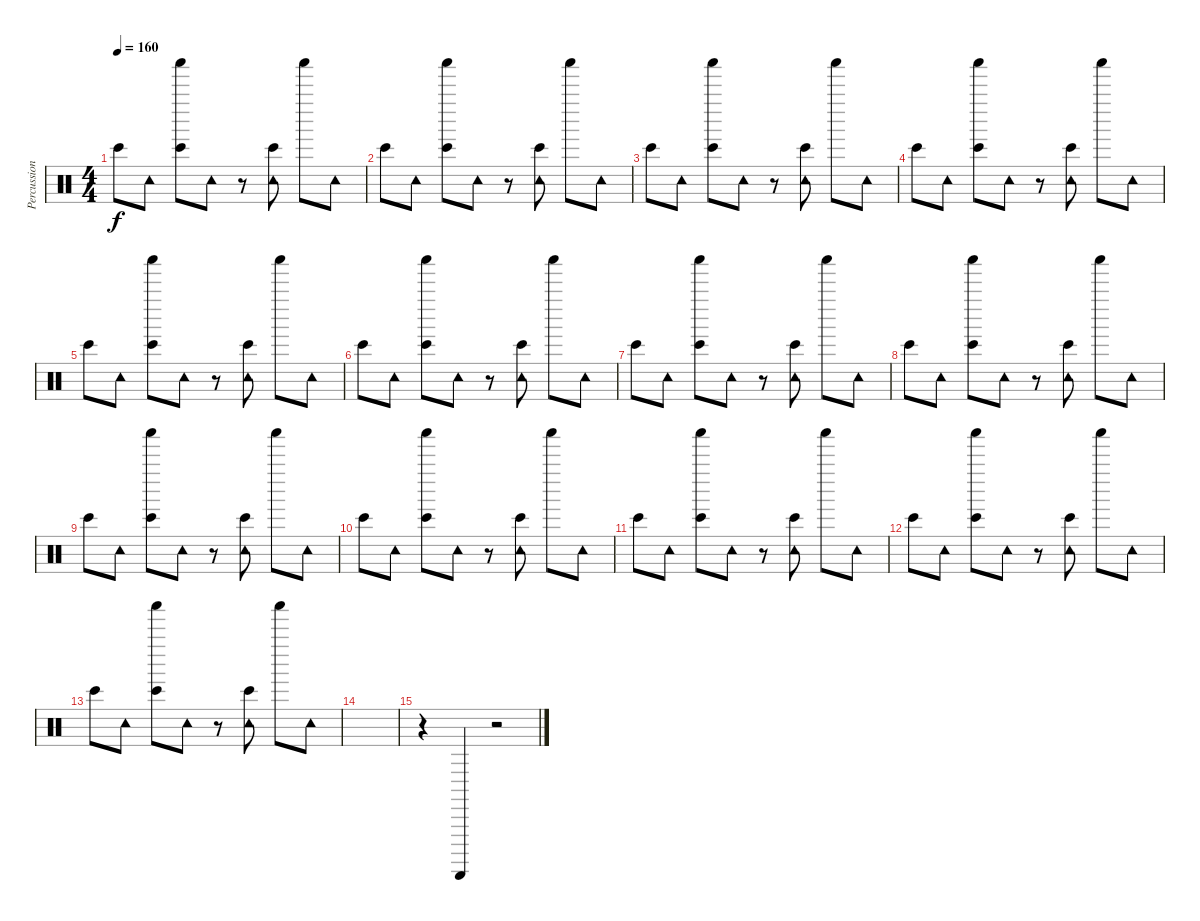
\track ("Percussions" "Percussion") {instrument percussion}
\staff {score}
\articulation defaults
\ts (4 4)
\tempo 160
\clef neutral
\ks c "Bongo High (hit)".8{dy f} "Tambourine (hit)".8
("Bongo High (hit)" "Shaker (hit)").8 "Tambourine (hit)".8 r.8 ("Bongo High (hit)" "Tambourine (hit)").8 "Shaker (hit)".8 "Tambourine (hit)".8 |
"Bongo High (hit)".8 "Tambourine (hit)".8 ("Bongo High (hit)" "Shaker (hit)").8 "Tambourine (hit)".8 r.8 ("Bongo High (hit)" "Tambourine (hit)").8 "Shaker (hit)".8 "Tambourine (hit)".8 |
"Bongo High (hit)".8 "Tambourine (hit)".8 ("Bongo High (hit)" "Shaker (hit)").8 "Tambourine (hit)".8 r.8 ("Bongo High (hit)" "Tambourine (hit)").8 "Shaker (hit)".8 "Tambourine (hit)".8 |
"Bongo High (hit)".8 "Tambourine (hit)".8 ("Bongo High (hit)" "Shaker (hit)").8 "Tambourine (hit)".8 r.8 ("Bongo High (hit)" "Tambourine (hit)").8 "Shaker (hit)".8 "Tambourine (hit)".8 |
"Bongo High (hit)".8 "Tambourine (hit)".8 ("Bongo High (hit)" "Shaker (hit)").8 "Tambourine (hit)".8 r.8 ("Bongo High (hit)" "Tambourine (hit)").8 "Shaker (hit)".8 "Tambourine (hit)".8 |
"Bongo High (hit)".8 "Tambourine (hit)".8 ("Bongo High (hit)" "Shaker (hit)").8 "Tambourine (hit)".8 r.8 ("Bongo High (hit)" "Tambourine (hit)").8 "Shaker (hit)".8 "Tambourine (hit)".8 |
"Bongo High (hit)".8 "Tambourine (hit)".8 ("Bongo High (hit)" "Shaker (hit)").8 "Tambourine (hit)".8 r.8 ("Bongo High (hit)" "Tambourine (hit)").8 "Shaker (hit)".8 "Tambourine (hit)".8 |
"Bongo High (hit)".8 "Tambourine (hit)".8 ("Bongo High (hit)" "Shaker (hit)").8 "Tambourine (hit)".8 r.8 ("Bongo High (hit)" "Tambourine (hit)").8 "Shaker (hit)".8 "Tambourine (hit)".8 |
"Bongo High (hit)".8 "Tambourine (hit)".8 ("Bongo High (hit)" "Shaker (hit)").8 "Tambourine (hit)".8 r.8 ("Bongo High (hit)" "Tambourine (hit)").8 "Shaker (hit)".8 "Tambourine (hit)".8 |
"Bongo High (hit)".8 "Tambourine (hit)".8 ("Bongo High (hit)" "Shaker (hit)").8 "Tambourine (hit)".8 r.8 ("Bongo High (hit)" "Tambourine (hit)").8 "Shaker (hit)".8 "Tambourine (hit)".8 |
"Bongo High (hit)".8 "Tambourine (hit)".8 ("Bongo High (hit)" "Shaker (hit)").8 "Tambourine (hit)".8 r.8 ("Bongo High (hit)" "Tambourine (hit)").8 "Shaker (hit)".8 "Tambourine (hit)".8 |
"Bongo High (hit)".8 "Tambourine (hit)".8 ("Bongo High (hit)" "Shaker (hit)").8 "Tambourine (hit)".8 r.8 ("Bongo High (hit)" "Tambourine (hit)").8 "Shaker (hit)".8 "Tambourine (hit)".8 |
"Bongo High (hit)".8 "Tambourine (hit)".8 ("Bongo High (hit)" "Shaker (hit)").8 "Tambourine (hit)".8 r.8 ("Bongo High (hit)" "Tambourine (hit)").8 "Shaker (hit)".8 "Tambourine (hit)".8 |
|
r.4 "Guiro (scrap-return)".4 r.2
